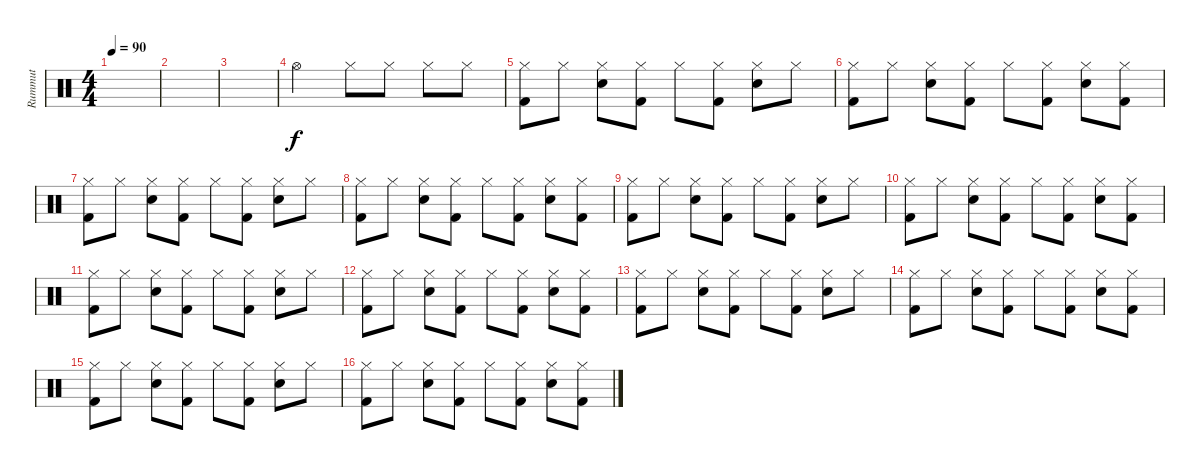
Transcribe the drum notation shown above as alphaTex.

\track ("Rummut" "Rummut") {instrument percussion}
\staff {score}
\articulation defaults
\ts (4 4)
\tempo 90
\clef neutral
\ks c
|
|
|
"Hi-Hat (open)".2 "Hi-Hat (closed)".8 "Hi-Hat (closed)".8 "Hi-Hat (closed)".8 "Hi-Hat (closed)".8 |
("Hi-Hat (closed)" "Kick (hit) 2").8 "Hi-Hat (closed)".8 ("Hi-Hat (closed)" "Snare (hit) 2").8 ("Hi-Hat (closed)" "Kick (hit) 2").8 "Hi-Hat (closed)".8 ("Hi-Hat (closed)" "Kick (hit) 2").8 ("Hi-Hat (closed)" "Snare (hit) 2").8 "Hi-Hat (closed)".8 |
("Hi-Hat (closed)" "Kick (hit) 2").8 "Hi-Hat (closed)".8 ("Hi-Hat (closed)" "Snare (hit) 2").8 ("Hi-Hat (closed)" "Kick (hit) 2").8 "Hi-Hat (closed)".8 ("Hi-Hat (closed)" "Kick (hit) 2").8 ("Hi-Hat (closed)" "Snare (hit) 2").8 ("Hi-Hat (closed)" "Kick (hit) 2").8 |
("Hi-Hat (closed)" "Kick (hit) 2").8 "Hi-Hat (closed)".8 ("Hi-Hat (closed)" "Snare (hit) 2").8 ("Hi-Hat (closed)" "Kick (hit) 2").8 "Hi-Hat (closed)".8 ("Hi-Hat (closed)" "Kick (hit) 2").8 ("Hi-Hat (closed)" "Snare (hit) 2").8 "Hi-Hat (closed)".8 |
("Hi-Hat (closed)" "Kick (hit) 2").8 "Hi-Hat (closed)".8 ("Hi-Hat (closed)" "Snare (hit) 2").8 ("Hi-Hat (closed)" "Kick (hit) 2").8 "Hi-Hat (closed)".8 ("Hi-Hat (closed)" "Kick (hit) 2").8 ("Hi-Hat (closed)" "Snare (hit) 2").8 ("Hi-Hat (closed)" "Kick (hit) 2").8 |
("Hi-Hat (closed)" "Kick (hit) 2").8 "Hi-Hat (closed)".8 ("Hi-Hat (closed)" "Snare (hit) 2").8 ("Hi-Hat (closed)" "Kick (hit) 2").8 "Hi-Hat (closed)".8 ("Hi-Hat (closed)" "Kick (hit) 2").8 ("Hi-Hat (closed)" "Snare (hit) 2").8 "Hi-Hat (closed)".8 |
("Hi-Hat (closed)" "Kick (hit) 2").8 "Hi-Hat (closed)".8 ("Hi-Hat (closed)" "Snare (hit) 2").8 ("Hi-Hat (closed)" "Kick (hit) 2").8 "Hi-Hat (closed)".8 ("Hi-Hat (closed)" "Kick (hit) 2").8 ("Hi-Hat (closed)" "Snare (hit) 2").8 ("Hi-Hat (closed)" "Kick (hit) 2").8 |
("Hi-Hat (closed)" "Kick (hit) 2").8 "Hi-Hat (closed)".8 ("Hi-Hat (closed)" "Snare (hit) 2").8 ("Hi-Hat (closed)" "Kick (hit) 2").8 "Hi-Hat (closed)".8 ("Hi-Hat (closed)" "Kick (hit) 2").8 ("Hi-Hat (closed)" "Snare (hit) 2").8 "Hi-Hat (closed)".8 |
("Hi-Hat (closed)" "Kick (hit) 2").8 "Hi-Hat (closed)".8 ("Hi-Hat (closed)" "Snare (hit) 2").8 ("Hi-Hat (closed)" "Kick (hit) 2").8 "Hi-Hat (closed)".8 ("Hi-Hat (closed)" "Kick (hit) 2").8 ("Hi-Hat (closed)" "Snare (hit) 2").8 ("Hi-Hat (closed)" "Kick (hit) 2").8 |
("Hi-Hat (closed)" "Kick (hit) 2").8 "Hi-Hat (closed)".8 ("Hi-Hat (closed)" "Snare (hit) 2").8 ("Hi-Hat (closed)" "Kick (hit) 2").8 "Hi-Hat (closed)".8 ("Hi-Hat (closed)" "Kick (hit) 2").8 ("Hi-Hat (closed)" "Snare (hit) 2").8 "Hi-Hat (closed)".8 |
("Hi-Hat (closed)" "Kick (hit) 2").8 "Hi-Hat (closed)".8 ("Hi-Hat (closed)" "Snare (hit) 2").8 ("Hi-Hat (closed)" "Kick (hit) 2").8 "Hi-Hat (closed)".8 ("Hi-Hat (closed)" "Kick (hit) 2").8 ("Hi-Hat (closed)" "Snare (hit) 2").8 ("Hi-Hat (closed)" "Kick (hit) 2").8 |
("Hi-Hat (closed)" "Kick (hit) 2").8 "Hi-Hat (closed)".8 ("Hi-Hat (closed)" "Snare (hit) 2").8 ("Hi-Hat (closed)" "Kick (hit) 2").8 "Hi-Hat (closed)".8 ("Hi-Hat (closed)" "Kick (hit) 2").8 ("Hi-Hat (closed)" "Snare (hit) 2").8 "Hi-Hat (closed)".8 |
("Hi-Hat (closed)" "Kick (hit) 2").8 "Hi-Hat (closed)".8 ("Hi-Hat (closed)" "Snare (hit) 2").8 ("Hi-Hat (closed)" "Kick (hit) 2").8 "Hi-Hat (closed)".8 ("Hi-Hat (closed)" "Kick (hit) 2").8 ("Hi-Hat (closed)" "Snare (hit) 2").8 ("Hi-Hat (closed)" "Kick (hit) 2").8
